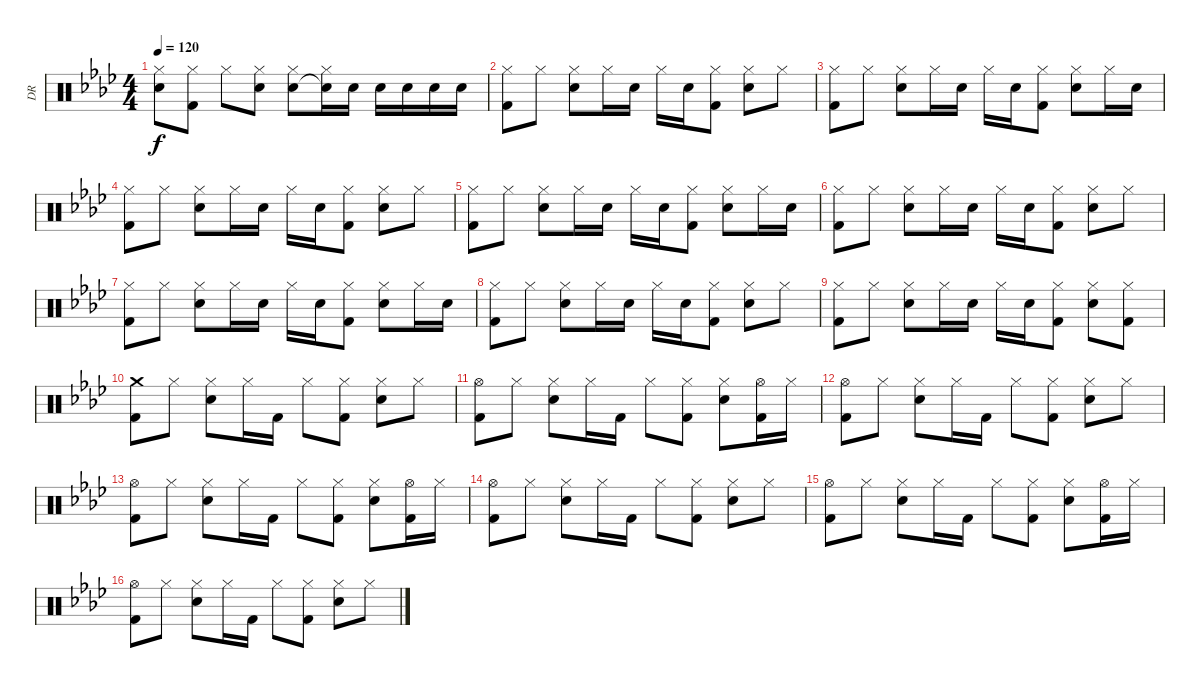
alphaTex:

\track ("DR" "DR") {instrument percussion}
\staff {score}
\articulation defaults
\ts (4 4)
\tempo 120
\clef neutral
\ks ab
("Hi-Hat (closed)" "Electric Snare (hit)").8{dy f} ("Hi-Hat (closed)" "Kick (hit) 2").8 "Hi-Hat (closed)".8 ("Hi-Hat (closed)" "Electric Snare (hit)").8 ("Hi-Hat (closed)" "Electric Snare (hit)").8 ("Hi-Hat (closed)" "Snare (hit)"{t}).16 "Electric Snare (hit)".16 "Electric Snare (hit)".16 "Electric Snare (hit)".16 "Electric Snare (hit)".16 "Electric Snare (hit)".16 |
("Hi-Hat (closed)" "Kick (hit) 2").8 "Hi-Hat (closed)".8 ("Hi-Hat (closed)" "Electric Snare (hit)").8 "Hi-Hat (closed)".16 "Electric Snare (hit)".16 "Hi-Hat (closed)".16 "Electric Snare (hit)".16 ("Hi-Hat (closed)" "Kick (hit) 2").8 ("Hi-Hat (closed)" "Electric Snare (hit)").8 "Hi-Hat (closed)".8 |
("Hi-Hat (closed)" "Kick (hit) 2").8 "Hi-Hat (closed)".8 ("Hi-Hat (closed)" "Electric Snare (hit)").8 "Hi-Hat (closed)".16 "Electric Snare (hit)".16 "Hi-Hat (closed)".16 "Electric Snare (hit)".16 ("Hi-Hat (closed)" "Kick (hit) 2").8 ("Hi-Hat (closed)" "Electric Snare (hit)").8 "Hi-Hat (closed)".16 "Electric Snare (hit)".16 |
("Hi-Hat (closed)" "Kick (hit) 2").8 "Hi-Hat (closed)".8 ("Hi-Hat (closed)" "Electric Snare (hit)").8 "Hi-Hat (closed)".16 "Electric Snare (hit)".16 "Hi-Hat (closed)".16 "Electric Snare (hit)".16 ("Hi-Hat (closed)" "Kick (hit) 2").8 ("Hi-Hat (closed)" "Electric Snare (hit)").8 "Hi-Hat (closed)".8 |
("Hi-Hat (closed)" "Kick (hit) 2").8 "Hi-Hat (closed)".8 ("Hi-Hat (closed)" "Electric Snare (hit)").8 "Hi-Hat (closed)".16 "Electric Snare (hit)".16 "Hi-Hat (closed)".16 "Electric Snare (hit)".16 ("Hi-Hat (closed)" "Kick (hit) 2").8 ("Hi-Hat (closed)" "Electric Snare (hit)").8 "Hi-Hat (closed)".16 "Electric Snare (hit)".16 |
("Hi-Hat (closed)" "Kick (hit) 2").8 "Hi-Hat (closed)".8 ("Hi-Hat (closed)" "Electric Snare (hit)").8 "Hi-Hat (closed)".16 "Electric Snare (hit)".16 "Hi-Hat (closed)".16 "Electric Snare (hit)".16 ("Hi-Hat (closed)" "Kick (hit) 2").8 ("Hi-Hat (closed)" "Electric Snare (hit)").8 "Hi-Hat (closed)".8 |
("Hi-Hat (closed)" "Kick (hit) 2").8 "Hi-Hat (closed)".8 ("Hi-Hat (closed)" "Electric Snare (hit)").8 "Hi-Hat (closed)".16 "Electric Snare (hit)".16 "Hi-Hat (closed)".16 "Electric Snare (hit)".16 ("Hi-Hat (closed)" "Kick (hit) 2").8 ("Hi-Hat (closed)" "Electric Snare (hit)").8 "Hi-Hat (closed)".16 "Electric Snare (hit)".16 |
("Hi-Hat (closed)" "Kick (hit) 2").8 "Hi-Hat (closed)".8 ("Hi-Hat (closed)" "Electric Snare (hit)").8 "Hi-Hat (closed)".16 "Electric Snare (hit)".16 "Hi-Hat (closed)".16 "Electric Snare (hit)".16 ("Hi-Hat (closed)" "Kick (hit) 2").8 ("Hi-Hat (closed)" "Electric Snare (hit)").8 "Hi-Hat (closed)".8 |
("Hi-Hat (closed)" "Kick (hit) 2").8 "Hi-Hat (closed)".8 ("Hi-Hat (closed)" "Electric Snare (hit)").8 "Hi-Hat (closed)".16 "Electric Snare (hit)".16 "Hi-Hat (closed)".16 "Electric Snare (hit)".16 ("Hi-Hat (closed)" "Kick (hit) 2").8 ("Hi-Hat (closed)" "Electric Snare (hit)").8 ("Hi-Hat (closed)" "Kick (hit) 2").8 |
("Crash medium (hit)" "Kick (hit) 2").8 "Hi-Hat (closed)".8 ("Hi-Hat (closed)" "Electric Snare (hit)").8 "Hi-Hat (closed)".16 "Kick (hit) 2".16 "Hi-Hat (closed)".8 ("Hi-Hat (closed)" "Kick (hit) 2").8 ("Hi-Hat (closed)" "Electric Snare (hit)").8 "Hi-Hat (closed)".8 |
("Hi-Hat (open)" "Kick (hit) 2").8 "Hi-Hat (closed)".8 ("Hi-Hat (closed)" "Electric Snare (hit)").8 "Hi-Hat (closed)".16 "Kick (hit) 2".16 "Hi-Hat (closed)".8 ("Hi-Hat (closed)" "Kick (hit) 2").8 ("Hi-Hat (closed)" "Electric Snare (hit)").8 ("Hi-Hat (open)" "Kick (hit) 2").16 "Hi-Hat (closed)".16 |
("Hi-Hat (open)" "Kick (hit) 2").8 "Hi-Hat (closed)".8 ("Hi-Hat (closed)" "Electric Snare (hit)").8 "Hi-Hat (closed)".16 "Kick (hit) 2".16 "Hi-Hat (closed)".8 ("Hi-Hat (closed)" "Kick (hit) 2").8 ("Hi-Hat (closed)" "Electric Snare (hit)").8 "Hi-Hat (closed)".8 |
("Hi-Hat (open)" "Kick (hit) 2").8 "Hi-Hat (closed)".8 ("Hi-Hat (closed)" "Electric Snare (hit)").8 "Hi-Hat (closed)".16 "Kick (hit) 2".16 "Hi-Hat (closed)".8 ("Hi-Hat (closed)" "Kick (hit) 2").8 ("Hi-Hat (closed)" "Electric Snare (hit)").8 ("Hi-Hat (open)" "Kick (hit) 2").16 "Hi-Hat (closed)".16 |
("Hi-Hat (open)" "Kick (hit) 2").8 "Hi-Hat (closed)".8 ("Hi-Hat (closed)" "Electric Snare (hit)").8 "Hi-Hat (closed)".16 "Kick (hit) 2".16 "Hi-Hat (closed)".8 ("Hi-Hat (closed)" "Kick (hit) 2").8 ("Hi-Hat (closed)" "Electric Snare (hit)").8 "Hi-Hat (closed)".8 |
("Hi-Hat (open)" "Kick (hit) 2").8 "Hi-Hat (closed)".8 ("Hi-Hat (closed)" "Electric Snare (hit)").8 "Hi-Hat (closed)".16 "Kick (hit) 2".16 "Hi-Hat (closed)".8 ("Hi-Hat (closed)" "Kick (hit) 2").8 ("Hi-Hat (closed)" "Electric Snare (hit)").8 ("Hi-Hat (open)" "Kick (hit) 2").16 "Hi-Hat (closed)".16 |
("Hi-Hat (open)" "Kick (hit) 2").8 "Hi-Hat (closed)".8 ("Hi-Hat (closed)" "Electric Snare (hit)").8 "Hi-Hat (closed)".16 "Kick (hit) 2".16 "Hi-Hat (closed)".8 ("Hi-Hat (closed)" "Kick (hit) 2").8 ("Hi-Hat (closed)" "Electric Snare (hit)").8 "Hi-Hat (closed)".8
